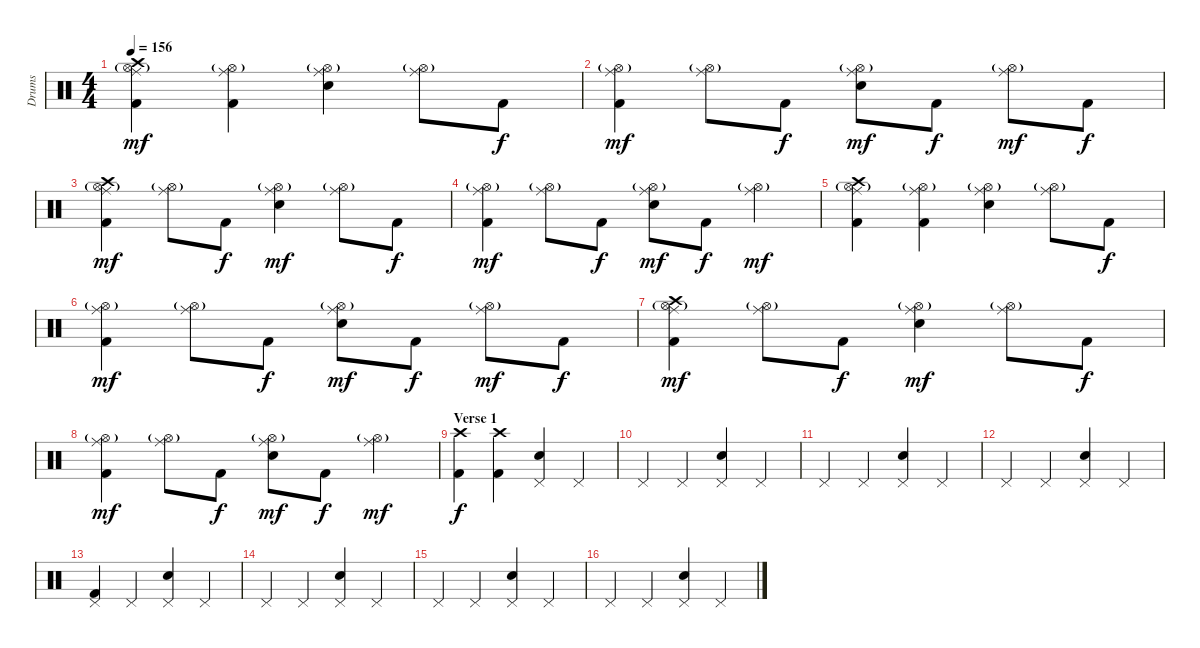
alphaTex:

\track ("Drums" "Drums") {instrument percussion}
\staff {score}
\articulation defaults
\ts (4 4)
\tempo 156
\clef neutral
\ks c
("Crash high (hit)" "Ride (middle)" "Hi-Hat (open)"{g} "Kick (hit) 2").4{dy mf} ("Ride (middle)" "Hi-Hat (open)"{g} "Kick (hit) 2").4 ("Ride (middle)" "Hi-Hat (open)"{g} "Electric Snare (hit)").4 ("Ride (middle)" "Hi-Hat (open)"{g}).8 "Kick (hit) 2".8{dy f} |
("Ride (middle)" "Hi-Hat (open)"{g} "Kick (hit) 2").4{dy mf} ("Ride (middle)" "Hi-Hat (open)"{g}).8 "Kick (hit) 2".8{dy f} ("Ride (middle)" "Hi-Hat (open)"{g} "Electric Snare (hit)").8{dy mf} "Kick (hit) 2".8{dy f} ("Ride (middle)" "Hi-Hat (open)"{g}).8{dy mf} "Kick (hit) 2".8{dy f} |
("Crash high (hit)" "Ride (middle)" "Hi-Hat (open)"{g} "Kick (hit) 2").4{dy mf} ("Ride (middle)" "Hi-Hat (open)"{g}).8 "Kick (hit) 2".8{dy f} ("Ride (middle)" "Hi-Hat (open)"{g} "Electric Snare (hit)").4{dy mf} ("Ride (middle)" "Hi-Hat (open)"{g}).8 "Kick (hit) 2".8{dy f} |
("Ride (middle)" "Hi-Hat (open)"{g} "Kick (hit) 2").4{dy mf} ("Ride (middle)" "Hi-Hat (open)"{g}).8 "Kick (hit) 2".8{dy f} ("Ride (middle)" "Hi-Hat (open)"{g} "Electric Snare (hit)").8{dy mf} "Kick (hit) 2".8{dy f} ("Ride (middle)" "Hi-Hat (open)"{g}).4{dy mf} |
("Crash high (hit)" "Ride (middle)" "Hi-Hat (open)"{g} "Kick (hit) 2").4 ("Ride (middle)" "Hi-Hat (open)"{g} "Kick (hit) 2").4 ("Ride (middle)" "Hi-Hat (open)"{g} "Electric Snare (hit)").4 ("Ride (middle)" "Hi-Hat (open)"{g}).8 "Kick (hit) 2".8{dy f} |
("Ride (middle)" "Hi-Hat (open)"{g} "Kick (hit) 2").4{dy mf} ("Ride (middle)" "Hi-Hat (open)"{g}).8 "Kick (hit) 2".8{dy f} ("Ride (middle)" "Hi-Hat (open)"{g} "Electric Snare (hit)").8{dy mf} "Kick (hit) 2".8{dy f} ("Ride (middle)" "Hi-Hat (open)"{g}).8{dy mf} "Kick (hit) 2".8{dy f} |
("Crash high (hit)" "Ride (middle)" "Hi-Hat (open)"{g} "Kick (hit) 2").4{dy mf} ("Ride (middle)" "Hi-Hat (open)"{g}).8 "Kick (hit) 2".8{dy f} ("Ride (middle)" "Hi-Hat (open)"{g} "Electric Snare (hit)").4{dy mf} ("Ride (middle)" "Hi-Hat (open)"{g}).8 "Kick (hit) 2".8{dy f} |
("Ride (middle)" "Hi-Hat (open)"{g} "Kick (hit) 2").4{dy mf} ("Ride (middle)" "Hi-Hat (open)"{g}).8 "Kick (hit) 2".8{dy f} ("Ride (middle)" "Hi-Hat (open)"{g} "Electric Snare (hit)").8{dy mf} "Kick (hit) 2".8{dy f} ("Ride (middle)" "Hi-Hat (open)"{g}).4{dy mf} |
\section ("" "Verse 1")
("Crash high (hit)" "Kick (hit) 2").4{dy f} ("Crash high (hit)" "Kick (hit) 2").4 ("Pedal Hi-Hat (hit)" "Electric Snare (hit)").4 "Pedal Hi-Hat (hit)".4 |
"Pedal Hi-Hat (hit)".4 "Pedal Hi-Hat (hit)".4 ("Pedal Hi-Hat (hit)" "Electric Snare (hit)").4 "Pedal Hi-Hat (hit)".4 |
"Pedal Hi-Hat (hit)".4 "Pedal Hi-Hat (hit)".4 ("Pedal Hi-Hat (hit)" "Electric Snare (hit)").4 "Pedal Hi-Hat (hit)".4 |
"Pedal Hi-Hat (hit)".4 "Pedal Hi-Hat (hit)".4 ("Pedal Hi-Hat (hit)" "Electric Snare (hit)").4 "Pedal Hi-Hat (hit)".4 |
("Pedal Hi-Hat (hit)" "Kick (hit) 2").4 "Pedal Hi-Hat (hit)".4 ("Pedal Hi-Hat (hit)" "Electric Snare (hit)").4 "Pedal Hi-Hat (hit)".4 |
"Pedal Hi-Hat (hit)".4 "Pedal Hi-Hat (hit)".4 ("Pedal Hi-Hat (hit)" "Electric Snare (hit)").4 "Pedal Hi-Hat (hit)".4 |
"Pedal Hi-Hat (hit)".4 "Pedal Hi-Hat (hit)".4 ("Pedal Hi-Hat (hit)" "Electric Snare (hit)").4 "Pedal Hi-Hat (hit)".4 |
"Pedal Hi-Hat (hit)".4 "Pedal Hi-Hat (hit)".4 ("Pedal Hi-Hat (hit)" "Electric Snare (hit)").4 "Pedal Hi-Hat (hit)".4
